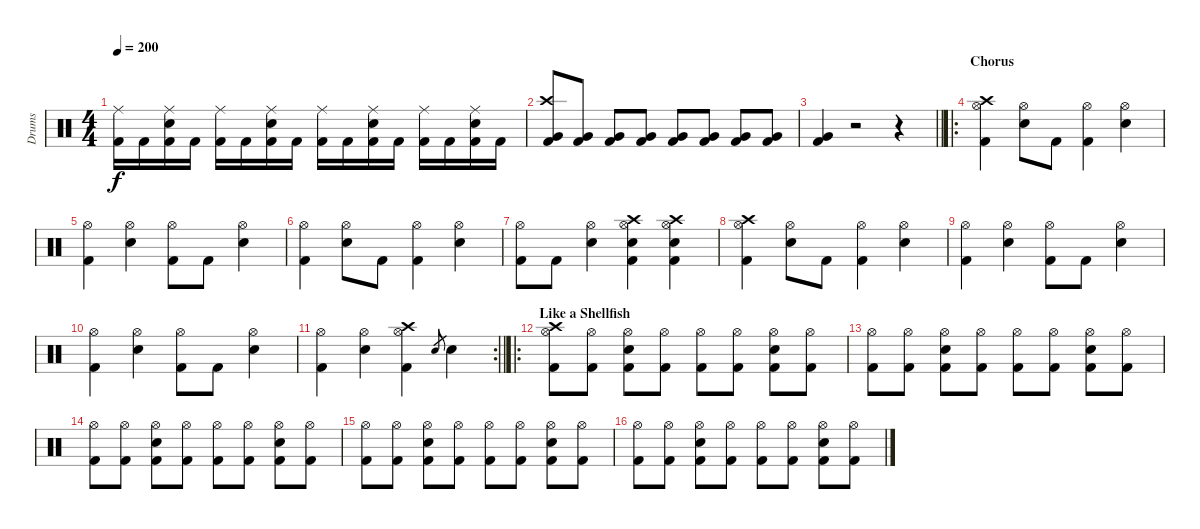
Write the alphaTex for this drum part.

\track ("Drums" "Drums") {instrument percussion}
\staff {score}
\articulation defaults
\ts (4 4)
\tempo 200
\clef neutral
\ks c
("Ride (middle)" "Kick (hit) 2").16{dy f} "Kick (hit) 2".16 ("Ride (middle)" "Snare (hit) 2" "Kick (hit) 2").16 "Kick (hit) 2".16 ("Ride (middle)" "Kick (hit) 2").16 "Kick (hit) 2".16 ("Ride (middle)" "Snare (hit) 2" "Kick (hit) 2").16 "Kick (hit) 2".16 ("Ride (middle)" "Kick (hit) 2").16 "Kick (hit) 2".16 ("Ride (middle)" "Snare (hit) 2" "Kick (hit) 2").16 "Kick (hit) 2".16 ("Ride (middle)" "Kick (hit) 2").16 "Kick (hit) 2".16 ("Ride (middle)" "Snare (hit) 2" "Kick (hit) 2").16 "Kick (hit) 2".16 |
("Crash high (hit)" "Very Low Tom (hit)" "Kick (hit) 2").8 ("Very Low Tom (hit)" "Kick (hit) 2").8 ("Very Low Tom (hit)" "Kick (hit) 2").8 ("Very Low Tom (hit)" "Kick (hit) 2").8 ("Very Low Tom (hit)" "Kick (hit) 2").8 ("Very Low Tom (hit)" "Kick (hit) 2").8 ("Very Low Tom (hit)" "Kick (hit) 2").8 ("Very Low Tom (hit)" "Kick (hit) 2").8 |
\barLineRight lightlight
("Very Low Tom (hit)" "Kick (hit) 2").4 r.2 r.4 |
\ro
\section ("" "Chorus")
("Crash high (hit)" "Hi-Hat (open)" "Kick (hit) 2").4 ("Hi-Hat (open)" "Snare (hit) 2").8 "Kick (hit) 2".8 ("Hi-Hat (open)" "Kick (hit) 2").4 ("Hi-Hat (open)" "Snare (hit) 2").4 |
("Hi-Hat (open)" "Kick (hit) 2").4 ("Hi-Hat (open)" "Snare (hit) 2").4 ("Hi-Hat (open)" "Kick (hit) 2").8 "Kick (hit) 2".8 ("Hi-Hat (open)" "Snare (hit) 2").4 |
("Hi-Hat (open)" "Kick (hit) 2").4 ("Hi-Hat (open)" "Snare (hit) 2").8 "Kick (hit) 2".8 ("Hi-Hat (open)" "Kick (hit) 2").4 ("Hi-Hat (open)" "Snare (hit) 2").4 |
("Hi-Hat (open)" "Kick (hit) 2").8 "Kick (hit) 2".8 ("Hi-Hat (open)" "Snare (hit) 2").4 ("Crash high (hit)" "Hi-Hat (open)" "Snare (hit) 2" "Kick (hit) 2").4 ("Crash high (hit)" "Hi-Hat (open)" "Snare (hit) 2" "Kick (hit) 2").4 |
("Crash high (hit)" "Hi-Hat (open)" "Kick (hit) 2").4 ("Hi-Hat (open)" "Snare (hit) 2").8 "Kick (hit) 2".8 ("Hi-Hat (open)" "Kick (hit) 2").4 ("Hi-Hat (open)" "Snare (hit) 2").4 |
("Hi-Hat (open)" "Kick (hit) 2").4 ("Hi-Hat (open)" "Snare (hit) 2").4 ("Hi-Hat (open)" "Kick (hit) 2").8 "Kick (hit) 2".8 ("Hi-Hat (open)" "Snare (hit) 2").4 |
("Hi-Hat (open)" "Kick (hit) 2").4 ("Hi-Hat (open)" "Snare (hit) 2").4 ("Hi-Hat (open)" "Kick (hit) 2").8 "Kick (hit) 2".8 ("Hi-Hat (open)" "Snare (hit) 2").4 |
\rc 2
\barLineRight lightlight
("Hi-Hat (open)" "Kick (hit) 2").4 ("Hi-Hat (open)" "Snare (hit) 2").4 ("Crash high (hit)" "Hi-Hat (open)" "Kick (hit) 2").4 "Snare (hit) 2".8{gr} "Snare (hit) 2".4 |
\ro
\section ("" "Like a Shellfish")
("Crash high (hit)" "Hi-Hat (open)" "Kick (hit) 2").8 ("Hi-Hat (open)" "Kick (hit) 2").8 ("Hi-Hat (open)" "Snare (hit) 2" "Kick (hit) 2").8 ("Hi-Hat (open)" "Kick (hit) 2").8 ("Hi-Hat (open)" "Kick (hit) 2").8 ("Hi-Hat (open)" "Kick (hit) 2").8 ("Hi-Hat (open)" "Snare (hit) 2" "Kick (hit) 2").8 ("Hi-Hat (open)" "Kick (hit) 2").8 |
("Hi-Hat (open)" "Kick (hit) 2").8 ("Hi-Hat (open)" "Kick (hit) 2").8 ("Hi-Hat (open)" "Snare (hit) 2" "Kick (hit) 2").8 ("Hi-Hat (open)" "Kick (hit) 2").8 ("Hi-Hat (open)" "Kick (hit) 2").8 ("Hi-Hat (open)" "Kick (hit) 2").8 ("Hi-Hat (open)" "Snare (hit) 2" "Kick (hit) 2").8 ("Hi-Hat (open)" "Kick (hit) 2").8 |
("Hi-Hat (open)" "Kick (hit) 2").8 ("Hi-Hat (open)" "Kick (hit) 2").8 ("Hi-Hat (open)" "Snare (hit) 2" "Kick (hit) 2").8 ("Hi-Hat (open)" "Kick (hit) 2").8 ("Hi-Hat (open)" "Kick (hit) 2").8 ("Hi-Hat (open)" "Kick (hit) 2").8 ("Hi-Hat (open)" "Snare (hit) 2" "Kick (hit) 2").8 ("Hi-Hat (open)" "Kick (hit) 2").8 |
("Hi-Hat (open)" "Kick (hit) 2").8 ("Hi-Hat (open)" "Kick (hit) 2").8 ("Hi-Hat (open)" "Snare (hit) 2" "Kick (hit) 2").8 ("Hi-Hat (open)" "Kick (hit) 2").8 ("Hi-Hat (open)" "Kick (hit) 2").8 ("Hi-Hat (open)" "Kick (hit) 2").8 ("Hi-Hat (open)" "Snare (hit) 2" "Kick (hit) 2").8 ("Hi-Hat (open)" "Kick (hit) 2").8 |
("Hi-Hat (open)" "Kick (hit) 2").8 ("Hi-Hat (open)" "Kick (hit) 2").8 ("Hi-Hat (open)" "Snare (hit) 2" "Kick (hit) 2").8 ("Hi-Hat (open)" "Kick (hit) 2").8 ("Hi-Hat (open)" "Kick (hit) 2").8 ("Hi-Hat (open)" "Kick (hit) 2").8 ("Hi-Hat (open)" "Snare (hit) 2" "Kick (hit) 2").8 ("Hi-Hat (open)" "Kick (hit) 2").8
